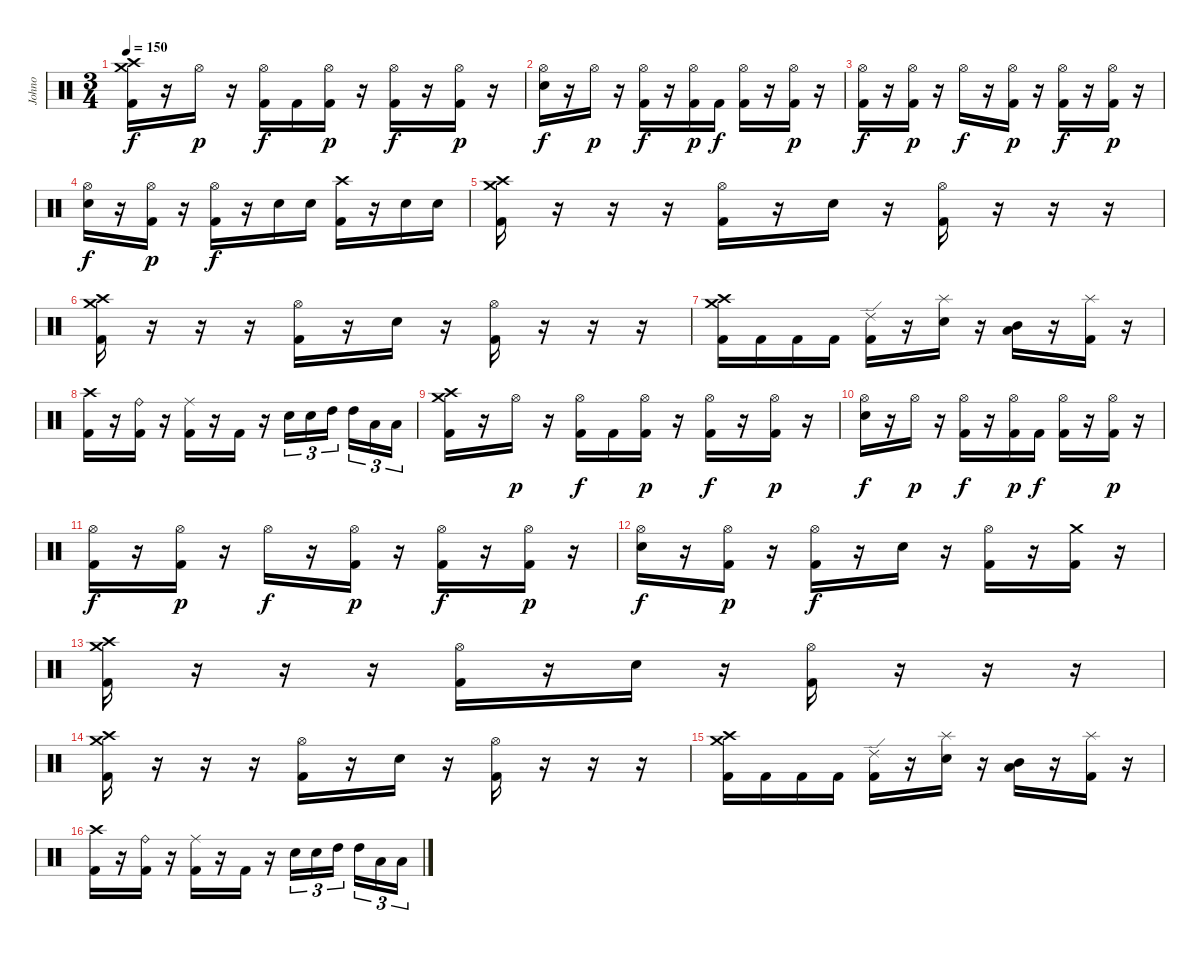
\track ("Johno" "Johno") {instrument percussion}
\staff {score}
\articulation defaults
\ts (3 4)
\tempo 150
\clef neutral
\ks c
("Crash medium (hit)" "Crash high (hit)" "Kick (hit) 2").16{dy f} r.16 "Hi-Hat (open)".16{dy p} r.16 ("Hi-Hat (open)" "Kick (hit) 2").16{dy f} "Kick (hit) 2".16 ("Hi-Hat (open)" "Kick (hit) 2").16{dy p} r.16 ("Hi-Hat (open)" "Kick (hit) 2").16{dy f} r.16 ("Hi-Hat (open)" "Kick (hit) 2").16{dy p} r.16 |
("Hi-Hat (open)" "Electric Snare (hit)").16{dy f} r.16 "Hi-Hat (open)".16{dy p} r.16 ("Hi-Hat (open)" "Kick (hit) 2").16{dy f} r.16 ("Hi-Hat (open)" "Kick (hit) 2").16{dy p} "Kick (hit) 2".16{dy f} ("Hi-Hat (open)" "Kick (hit) 2").16 r.16 ("Hi-Hat (open)" "Kick (hit) 2").16{dy p} r.16 |
("Hi-Hat (open)" "Kick (hit) 2").16{dy f} r.16 ("Hi-Hat (open)" "Kick (hit) 2").16{dy p} r.16 "Hi-Hat (open)".16{dy f} r.16 ("Hi-Hat (open)" "Kick (hit) 2").16{dy p} r.16 ("Hi-Hat (open)" "Kick (hit) 2").16{dy f} r.16 ("Hi-Hat (open)" "Kick (hit) 2").16{dy p} r.16 |
("Hi-Hat (open)" "Electric Snare (hit)").16{dy f} r.16 ("Hi-Hat (open)" "Kick (hit) 2").16{dy p} r.16 ("Hi-Hat (open)" "Kick (hit) 2").16{dy f} r.16 "Electric Snare (hit)".16 "Electric Snare (hit)".16 ("Crash high (hit)" "Kick (hit) 2").16 r.16 "Electric Snare (hit)".16 "Electric Snare (hit)".16 |
("Crash medium (hit)" "Crash high (hit)" "Kick (hit) 2").16 r.16 r.16 r.16 ("Hi-Hat (open)" "Kick (hit) 2").16 r.16 "Electric Snare (hit)".16 r.16 ("Hi-Hat (open)" "Kick (hit) 2").16 r.16 r.16 r.16 |
("Crash medium (hit)" "Crash high (hit)" "Kick (hit) 2").16 r.16 r.16 r.16 ("Hi-Hat (open)" "Kick (hit) 2").16 r.16 "Electric Snare (hit)".16 r.16 ("Hi-Hat (open)" "Kick (hit) 2").16 r.16 r.16 r.16 |
("Crash medium (hit)" "Crash high (hit)" "Kick (hit) 2").16 "Kick (hit) 2".16 "Kick (hit) 2".16 "Kick (hit) 2".16 ("Ride (edge) 2" "Kick (hit) 2").16 r.16 ("Splash (hit)" "Electric Snare (hit)").16 r.16 ("Low Floor Tom (hit)" "Mid Tom (hit)").16 r.16 ("Splash (hit)" "Kick (hit) 2").16 r.16 |
("Crash high (hit)" "Kick (hit) 2").16 r.16 ("Ride (bell)" "Kick (hit) 2").16 r.16 ("Ride (middle)" "Kick (hit) 2").16 r.16 "Kick (hit) 2".16 r.16 "Electric Snare (hit)".16{tu (3 2)} "Electric Snare (hit)".16{tu (3 2)} "High Tom (hit)".16{tu (3 2) beam splitsecondary} "High Tom (hit)".16{tu (3 2)} "Low Floor Tom (hit)".16{tu (3 2)} "Low Floor Tom (hit)".16{tu (3 2)} |
("Crash medium (hit)" "Crash high (hit)" "Kick (hit) 2").16 r.16 "Hi-Hat (open)".16{dy p} r.16 ("Hi-Hat (open)" "Kick (hit) 2").16{dy f} "Kick (hit) 2".16 ("Hi-Hat (open)" "Kick (hit) 2").16{dy p} r.16 ("Hi-Hat (open)" "Kick (hit) 2").16{dy f} r.16 ("Hi-Hat (open)" "Kick (hit) 2").16{dy p} r.16 |
("Hi-Hat (open)" "Electric Snare (hit)").16{dy f} r.16 "Hi-Hat (open)".16{dy p} r.16 ("Hi-Hat (open)" "Kick (hit) 2").16{dy f} r.16 ("Hi-Hat (open)" "Kick (hit) 2").16{dy p} "Kick (hit) 2".16{dy f} ("Hi-Hat (open)" "Kick (hit) 2").16 r.16 ("Hi-Hat (open)" "Kick (hit) 2").16{dy p} r.16 |
("Hi-Hat (open)" "Kick (hit) 2").16{dy f} r.16 ("Hi-Hat (open)" "Kick (hit) 2").16{dy p} r.16 "Hi-Hat (open)".16{dy f} r.16 ("Hi-Hat (open)" "Kick (hit) 2").16{dy p} r.16 ("Hi-Hat (open)" "Kick (hit) 2").16{dy f} r.16 ("Hi-Hat (open)" "Kick (hit) 2").16{dy p} r.16 |
("Hi-Hat (open)" "Electric Snare (hit)").16{dy f} r.16 ("Hi-Hat (open)" "Kick (hit) 2").16{dy p} r.16 ("Hi-Hat (open)" "Kick (hit) 2").16{dy f} r.16 "Electric Snare (hit)".16 r.16 ("Hi-Hat (open)" "Kick (hit) 2").16 r.16 ("Crash medium (hit)" "Kick (hit) 2").16 r.16 |
("Crash medium (hit)" "Crash high (hit)" "Kick (hit) 2").16 r.16 r.16 r.16 ("Hi-Hat (open)" "Kick (hit) 2").16 r.16 "Electric Snare (hit)".16 r.16 ("Hi-Hat (open)" "Kick (hit) 2").16 r.16 r.16 r.16 |
("Crash medium (hit)" "Crash high (hit)" "Kick (hit) 2").16 r.16 r.16 r.16 ("Hi-Hat (open)" "Kick (hit) 2").16 r.16 "Electric Snare (hit)".16 r.16 ("Hi-Hat (open)" "Kick (hit) 2").16 r.16 r.16 r.16 |
("Crash medium (hit)" "Crash high (hit)" "Kick (hit) 2").16 "Kick (hit) 2".16 "Kick (hit) 2".16 "Kick (hit) 2".16 ("Ride (edge) 2" "Kick (hit) 2").16 r.16 ("Splash (hit)" "Electric Snare (hit)").16 r.16 ("Low Floor Tom (hit)" "Mid Tom (hit)").16 r.16 ("Splash (hit)" "Kick (hit) 2").16 r.16 |
("Crash high (hit)" "Kick (hit) 2").16 r.16 ("Ride (bell)" "Kick (hit) 2").16 r.16 ("Ride (middle)" "Kick (hit) 2").16 r.16 "Kick (hit) 2".16 r.16 "Electric Snare (hit)".16{tu (3 2)} "Electric Snare (hit)".16{tu (3 2)} "High Tom (hit)".16{tu (3 2) beam splitsecondary} "High Tom (hit)".16{tu (3 2)} "Low Floor Tom (hit)".16{tu (3 2)} "Low Floor Tom (hit)".16{tu (3 2)}
